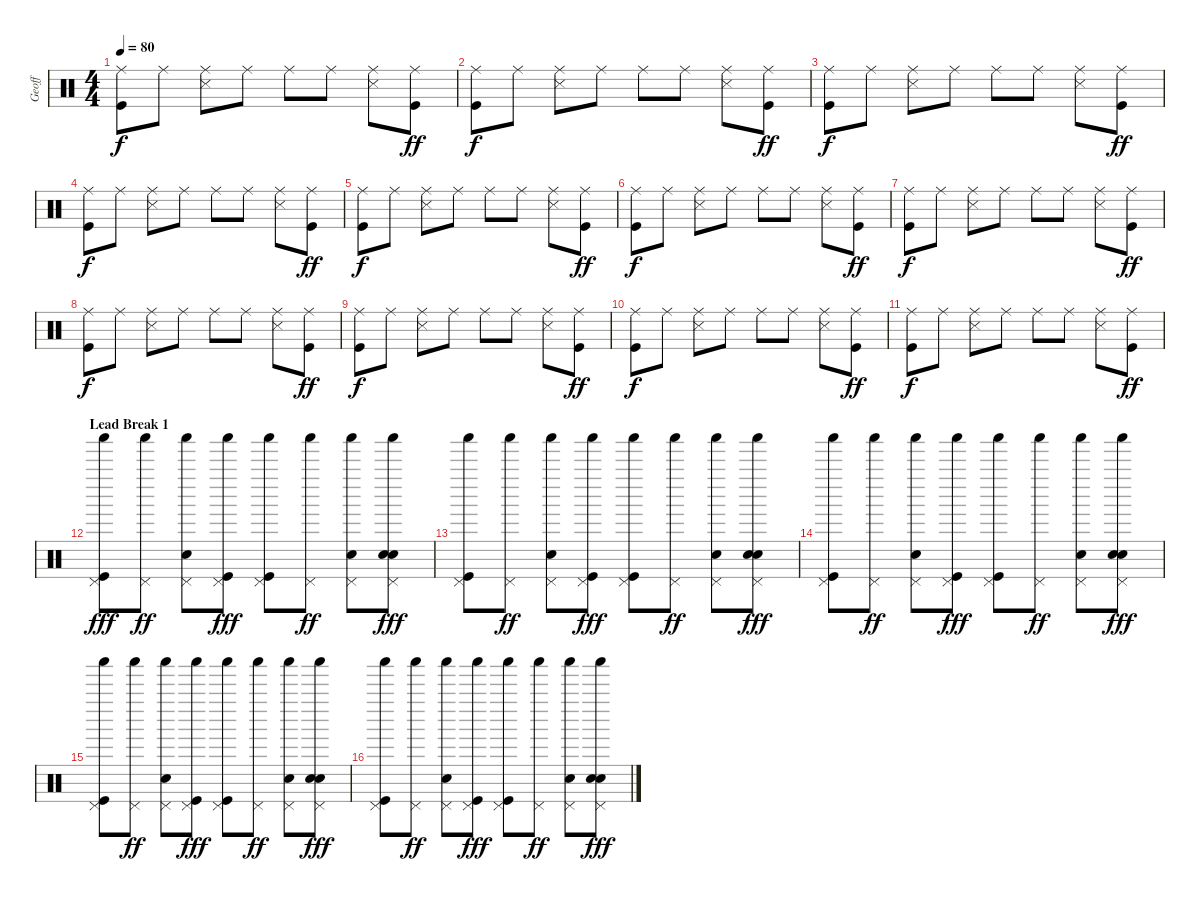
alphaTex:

\track ("Geoff" "Geoff") {instrument percussion}
\staff {score}
\articulation defaults
\ts (4 4)
\tempo 80
\clef neutral
\ks c
("Ride (middle)" "Kick (hit)").8{dy f} "Ride (middle)".8 ("Ride (middle)" "Snare (side stick) 3").8 "Ride (middle)".8 "Ride (middle)".8 "Ride (middle)".8 ("Ride (middle)" "Snare (side stick) 3").8 ("Ride (middle)" "Kick (hit)").8{dy ff} |
("Ride (middle)" "Kick (hit)").8{dy f} "Ride (middle)".8 ("Ride (middle)" "Snare (side stick) 3").8 "Ride (middle)".8 "Ride (middle)".8 "Ride (middle)".8 ("Ride (middle)" "Snare (side stick) 3").8 ("Ride (middle)" "Kick (hit)").8{dy ff} |
("Ride (middle)" "Kick (hit)").8{dy f} "Ride (middle)".8 ("Ride (middle)" "Snare (side stick) 3").8 "Ride (middle)".8 "Ride (middle)".8 "Ride (middle)".8 ("Ride (middle)" "Snare (side stick) 3").8 ("Ride (middle)" "Kick (hit)").8{dy ff} |
("Ride (middle)" "Kick (hit)").8{dy f} "Ride (middle)".8 ("Ride (middle)" "Snare (side stick) 3").8 "Ride (middle)".8 "Ride (middle)".8 "Ride (middle)".8 ("Ride (middle)" "Snare (side stick) 3").8 ("Ride (middle)" "Kick (hit)").8{dy ff} |
("Ride (middle)" "Kick (hit)").8{dy f} "Ride (middle)".8 ("Ride (middle)" "Snare (side stick) 3").8 "Ride (middle)".8 "Ride (middle)".8 "Ride (middle)".8 ("Ride (middle)" "Snare (side stick) 3").8 ("Ride (middle)" "Kick (hit)").8{dy ff} |
("Ride (middle)" "Kick (hit)").8{dy f} "Ride (middle)".8 ("Ride (middle)" "Snare (side stick) 3").8 "Ride (middle)".8 "Ride (middle)".8 "Ride (middle)".8 ("Ride (middle)" "Snare (side stick) 3").8 ("Ride (middle)" "Kick (hit)").8{dy ff} |
("Ride (middle)" "Kick (hit)").8{dy f} "Ride (middle)".8 ("Ride (middle)" "Snare (side stick) 3").8 "Ride (middle)".8 "Ride (middle)".8 "Ride (middle)".8 ("Ride (middle)" "Snare (side stick) 3").8 ("Ride (middle)" "Kick (hit)").8{dy ff} |
("Ride (middle)" "Kick (hit)").8{dy f} "Ride (middle)".8 ("Ride (middle)" "Snare (side stick) 3").8 "Ride (middle)".8 "Ride (middle)".8 "Ride (middle)".8 ("Ride (middle)" "Snare (side stick) 3").8 ("Ride (middle)" "Kick (hit)").8{dy ff} |
("Ride (middle)" "Kick (hit)").8{dy f} "Ride (middle)".8 ("Ride (middle)" "Snare (side stick) 3").8 "Ride (middle)".8 "Ride (middle)".8 "Ride (middle)".8 ("Ride (middle)" "Snare (side stick) 3").8 ("Ride (middle)" "Kick (hit)").8{dy ff} |
("Ride (middle)" "Kick (hit)").8{dy f} "Ride (middle)".8 ("Ride (middle)" "Snare (side stick) 3").8 "Ride (middle)".8 "Ride (middle)".8 "Ride (middle)".8 ("Ride (middle)" "Snare (side stick) 3").8 ("Ride (middle)" "Kick (hit)").8{dy ff} |
("Ride (middle)" "Kick (hit)").8{dy f} "Ride (middle)".8 ("Ride (middle)" "Snare (side stick) 3").8 "Ride (middle)".8 "Ride (middle)".8 "Ride (middle)".8 ("Ride (middle)" "Snare (side stick) 3").8 ("Ride (middle)" "Kick (hit)").8{dy ff} |
\section ("" "Lead Break 1")
("Shaker (hit)" "Pedal Hi-Hat (hit)" "Kick (hit)").8{dy fff} ("Shaker (hit)" "Pedal Hi-Hat (hit)").8{dy ff} ("Shaker (hit)" "Pedal Hi-Hat (hit)" "Snare (hit) 2").8 ("Shaker (hit)" "Pedal Hi-Hat (hit)" "Kick (hit)").8{dy fff} ("Shaker (hit)" "Pedal Hi-Hat (hit)" "Kick (hit)").8 ("Shaker (hit)" "Pedal Hi-Hat (hit)").8{dy ff} ("Shaker (hit)" "Pedal Hi-Hat (hit)" "Snare (hit) 2").8 ("Shaker (hit)" "Pedal Hi-Hat (hit)" "Hand Clap (hit)" "Hand Clap (hit)").8{dy fff} |
("Shaker (hit)" "Pedal Hi-Hat (hit)" "Kick (hit)").8 ("Shaker (hit)" "Pedal Hi-Hat (hit)").8{dy ff} ("Shaker (hit)" "Pedal Hi-Hat (hit)" "Snare (hit) 2").8 ("Shaker (hit)" "Pedal Hi-Hat (hit)" "Kick (hit)").8{dy fff} ("Shaker (hit)" "Pedal Hi-Hat (hit)" "Kick (hit)").8 ("Shaker (hit)" "Pedal Hi-Hat (hit)").8{dy ff} ("Shaker (hit)" "Pedal Hi-Hat (hit)" "Snare (hit) 2").8 ("Shaker (hit)" "Pedal Hi-Hat (hit)" "Hand Clap (hit)" "Hand Clap (hit)").8{dy fff} |
("Shaker (hit)" "Pedal Hi-Hat (hit)" "Kick (hit)").8 ("Shaker (hit)" "Pedal Hi-Hat (hit)").8{dy ff} ("Shaker (hit)" "Pedal Hi-Hat (hit)" "Snare (hit) 2").8 ("Shaker (hit)" "Pedal Hi-Hat (hit)" "Kick (hit)").8{dy fff} ("Shaker (hit)" "Pedal Hi-Hat (hit)" "Kick (hit)").8 ("Shaker (hit)" "Pedal Hi-Hat (hit)").8{dy ff} ("Shaker (hit)" "Pedal Hi-Hat (hit)" "Snare (hit) 2").8 ("Shaker (hit)" "Pedal Hi-Hat (hit)" "Hand Clap (hit)" "Hand Clap (hit)").8{dy fff} |
("Shaker (hit)" "Pedal Hi-Hat (hit)" "Kick (hit)").8 ("Shaker (hit)" "Pedal Hi-Hat (hit)").8{dy ff} ("Shaker (hit)" "Pedal Hi-Hat (hit)" "Snare (hit) 2").8 ("Shaker (hit)" "Pedal Hi-Hat (hit)" "Kick (hit)").8{dy fff} ("Shaker (hit)" "Pedal Hi-Hat (hit)" "Kick (hit)").8 ("Shaker (hit)" "Pedal Hi-Hat (hit)").8{dy ff} ("Shaker (hit)" "Pedal Hi-Hat (hit)" "Snare (hit) 2").8 ("Shaker (hit)" "Pedal Hi-Hat (hit)" "Hand Clap (hit)" "Hand Clap (hit)").8{dy fff} |
("Shaker (hit)" "Pedal Hi-Hat (hit)" "Kick (hit)").8 ("Shaker (hit)" "Pedal Hi-Hat (hit)").8{dy ff} ("Shaker (hit)" "Pedal Hi-Hat (hit)" "Snare (hit) 2").8 ("Shaker (hit)" "Pedal Hi-Hat (hit)" "Kick (hit)").8{dy fff} ("Shaker (hit)" "Pedal Hi-Hat (hit)" "Kick (hit)").8 ("Shaker (hit)" "Pedal Hi-Hat (hit)").8{dy ff} ("Shaker (hit)" "Pedal Hi-Hat (hit)" "Snare (hit) 2").8 ("Shaker (hit)" "Pedal Hi-Hat (hit)" "Hand Clap (hit)" "Hand Clap (hit)").8{dy fff}
